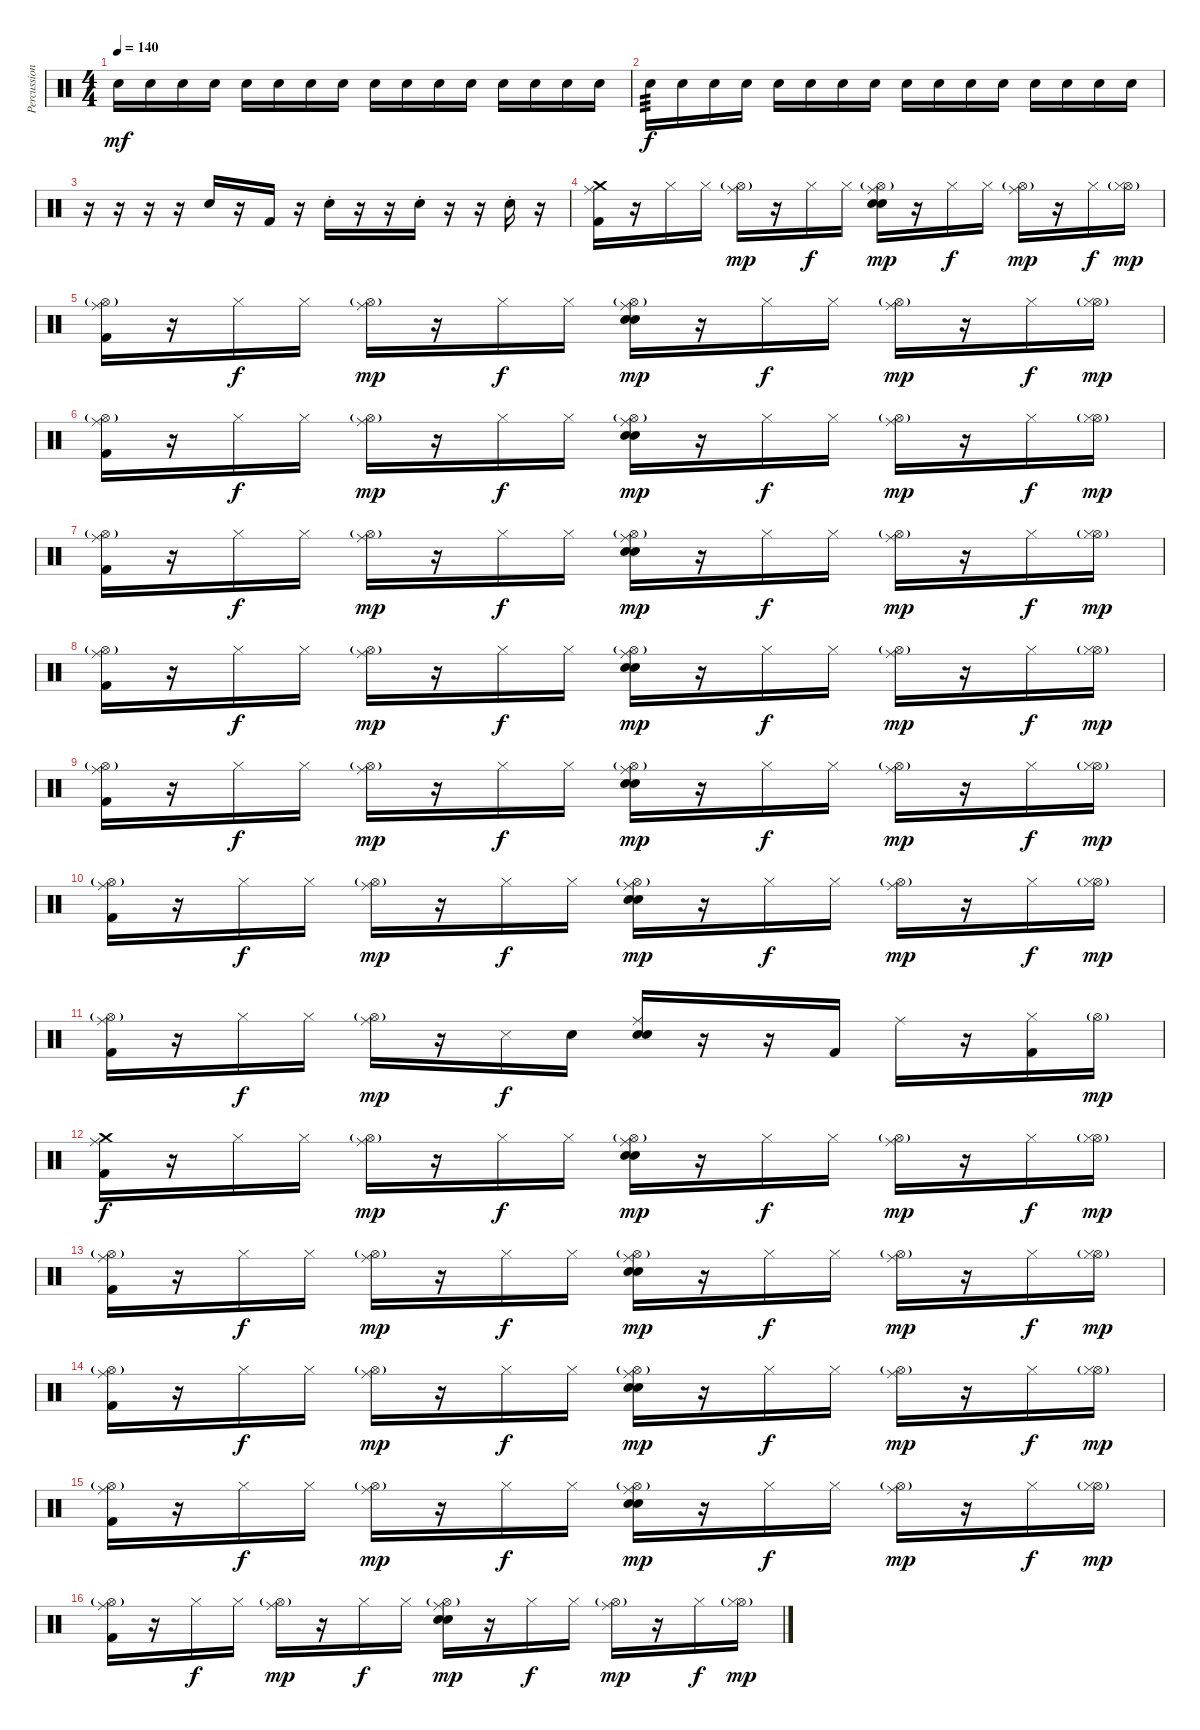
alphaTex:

\track ("Percussion" "Percussion") {instrument percussion}
\staff {score}
\articulation defaults
\ts (4 4)
\tempo 140
\clef neutral
\ks c "Snare (hit) 2".16{dy mf} "Snare (hit) 2".16 "Snare (hit) 2".16 "Snare (hit) 2".16 "Snare (hit) 2".16 "Snare (hit) 2".16 "Snare (hit) 2".16 "Snare (hit) 2".16 "Snare (hit) 2".16 "Snare (hit) 2".16 "Snare (hit) 2".16 "Snare (hit) 2".16 "Snare (hit) 2".16 "Snare (hit) 2".16 "Snare (hit) 2".16 "Snare (hit) 2".16
|
"Snare (hit) 2".16{tp 3 dy f} "Snare (hit) 2".16 "Snare (hit) 2".16 "Snare (hit) 2".16 "Snare (hit) 2".16 "Snare (hit) 2".16 "Snare (hit) 2".16 "Snare (hit) 2".16 "Snare (hit) 2".16 "Snare (hit) 2".16 "Snare (hit) 2".16 "Snare (hit) 2".16 "Snare (hit) 2".16 "Snare (hit) 2".16 "Snare (hit) 2".16 "Snare (hit) 2".16 |
r.16 r.16 r.16 r.16 "Snare (hit) 2".16 r.16 "Kick (hit) 2".16 r.16 "Snare (hit) 2"{st}.16 r.16 r.16 "Snare (hit) 2"{st}.16 r.16 r.16 "Snare (hit) 2"{st}.16 r.16 |
("Crash medium (hit)" "Ride (middle)" "Kick (hit) 2").16 r.16 "Hi-Hat (closed)".16 "Hi-Hat (closed)".16 ("Hi-Hat (open)"{g} "Ride (middle)").16{dy mp} r.16 "Hi-Hat (closed)".16{dy f} "Hi-Hat (closed)".16 ("Hi-Hat (open)"{g} "Ride (middle)" "Hand Clap (hit)" "Snare (hit) 2").16{dy mp} r.16 "Hi-Hat (closed)".16{dy f} "Hi-Hat (closed)".16 ("Hi-Hat (open)"{g} "Ride (middle)").16{dy mp} r.16 "Hi-Hat (closed)".16{dy f} ("Hi-Hat (open)"{g} "Hi-Hat (closed)").16{dy mp} |
("Hi-Hat (open)"{g} "Ride (middle)" "Kick (hit) 2").16 r.16 "Hi-Hat (closed)".16{dy f} "Hi-Hat (closed)".16 ("Hi-Hat (open)"{g} "Ride (middle)").16{dy mp} r.16 "Hi-Hat (closed)".16{dy f} "Hi-Hat (closed)".16 ("Hi-Hat (open)"{g} "Ride (middle)" "Hand Clap (hit)" "Snare (hit) 2").16{dy mp} r.16 "Hi-Hat (closed)".16{dy f} "Hi-Hat (closed)".16 ("Hi-Hat (open)"{g} "Ride (middle)").16{dy mp} r.16 "Hi-Hat (closed)".16{dy f} ("Hi-Hat (open)"{g} "Hi-Hat (closed)").16{dy mp} |
("Hi-Hat (open)"{g} "Ride (middle)" "Kick (hit) 2").16 r.16 "Hi-Hat (closed)".16{dy f} "Hi-Hat (closed)".16 ("Hi-Hat (open)"{g} "Ride (middle)").16{dy mp} r.16 "Hi-Hat (closed)".16{dy f} "Hi-Hat (closed)".16 ("Hi-Hat (open)"{g} "Ride (middle)" "Hand Clap (hit)" "Snare (hit) 2").16{dy mp} r.16 "Hi-Hat (closed)".16{dy f} "Hi-Hat (closed)".16 ("Hi-Hat (open)"{g} "Ride (middle)").16{dy mp} r.16 "Hi-Hat (closed)".16{dy f} ("Hi-Hat (open)"{g} "Hi-Hat (closed)").16{dy mp} |
("Hi-Hat (open)"{g} "Ride (middle)" "Kick (hit) 2").16 r.16 "Hi-Hat (closed)".16{dy f} "Hi-Hat (closed)".16 ("Hi-Hat (open)"{g} "Ride (middle)").16{dy mp} r.16 "Hi-Hat (closed)".16{dy f} "Hi-Hat (closed)".16 ("Hi-Hat (open)"{g} "Ride (middle)" "Hand Clap (hit)" "Snare (hit) 2").16{dy mp} r.16 "Hi-Hat (closed)".16{dy f} "Hi-Hat (closed)".16 ("Hi-Hat (open)"{g} "Ride (middle)").16{dy mp} r.16 "Hi-Hat (closed)".16{dy f} ("Hi-Hat (open)"{g} "Hi-Hat (closed)").16{dy mp} |
("Hi-Hat (open)"{g} "Ride (middle)" "Kick (hit) 2").16 r.16 "Hi-Hat (closed)".16{dy f} "Hi-Hat (closed)".16 ("Hi-Hat (open)"{g} "Ride (middle)").16{dy mp} r.16 "Hi-Hat (closed)".16{dy f} "Hi-Hat (closed)".16 ("Hi-Hat (open)"{g} "Ride (middle)" "Hand Clap (hit)" "Snare (hit) 2").16{dy mp} r.16 "Hi-Hat (closed)".16{dy f} "Hi-Hat (closed)".16 ("Hi-Hat (open)"{g} "Ride (middle)").16{dy mp} r.16 "Hi-Hat (closed)".16{dy f} ("Hi-Hat (open)"{g} "Hi-Hat (closed)").16{dy mp} |
("Hi-Hat (open)"{g} "Ride (middle)" "Kick (hit) 2").16 r.16 "Hi-Hat (closed)".16{dy f} "Hi-Hat (closed)".16 ("Hi-Hat (open)"{g} "Ride (middle)").16{dy mp} r.16 "Hi-Hat (closed)".16{dy f} "Hi-Hat (closed)".16 ("Hi-Hat (open)"{g} "Ride (middle)" "Hand Clap (hit)" "Snare (hit) 2").16{dy mp} r.16 "Hi-Hat (closed)".16{dy f} "Hi-Hat (closed)".16 ("Hi-Hat (open)"{g} "Ride (middle)").16{dy mp} r.16 "Hi-Hat (closed)".16{dy f} ("Hi-Hat (open)"{g} "Hi-Hat (closed)").16{dy mp} |
("Hi-Hat (open)"{g} "Ride (middle)" "Kick (hit) 2").16 r.16 "Hi-Hat (closed)".16{dy f} "Hi-Hat (closed)".16 ("Hi-Hat (open)"{g} "Ride (middle)").16{dy mp} r.16 "Hi-Hat (closed)".16{dy f} "Hi-Hat (closed)".16 ("Hi-Hat (open)"{g} "Ride (middle)" "Hand Clap (hit)" "Snare (hit) 2").16{dy mp} r.16 "Hi-Hat (closed)".16{dy f} "Hi-Hat (closed)".16 ("Hi-Hat (open)"{g} "Ride (middle)").16{dy mp} r.16 "Hi-Hat (closed)".16{dy f} ("Hi-Hat (open)"{g} "Hi-Hat (closed)").16{dy mp} |
("Hi-Hat (open)"{g} "Ride (middle)" "Kick (hit) 2").16 r.16 "Hi-Hat (closed)".16{dy f} "Hi-Hat (closed)".16 ("Hi-Hat (open)"{g} "Ride (middle)").16{dy mp} r.16 "Snare (side stick) 3".16{dy f} "Hand Clap (hit)".16 ("Ride (middle)" "Snare (hit) 2" "Hand Clap (hit)").16 r.16 r.16 "Kick (hit) 2".16 "Ride (middle)".16 r.16 ("Hi-Hat (closed)" "Kick (hit) 2").16 "Hi-Hat (open)"{g}.16{dy mp} |
("Crash medium (hit)" "Ride (middle)" "Kick (hit) 2").16{dy f} r.16 "Hi-Hat (closed)".16 "Hi-Hat (closed)".16 ("Hi-Hat (open)"{g} "Ride (middle)").16{dy mp} r.16 "Hi-Hat (closed)".16{dy f} "Hi-Hat (closed)".16 ("Hi-Hat (open)"{g} "Ride (middle)" "Hand Clap (hit)" "Snare (hit) 2").16{dy mp} r.16 "Hi-Hat (closed)".16{dy f} "Hi-Hat (closed)".16 ("Hi-Hat (open)"{g} "Ride (middle)").16{dy mp} r.16 "Hi-Hat (closed)".16{dy f} ("Hi-Hat (open)"{g} "Hi-Hat (closed)").16{dy mp} |
("Hi-Hat (open)"{g} "Ride (middle)" "Kick (hit) 2").16 r.16 "Hi-Hat (closed)".16{dy f} "Hi-Hat (closed)".16 ("Hi-Hat (open)"{g} "Ride (middle)").16{dy mp} r.16 "Hi-Hat (closed)".16{dy f} "Hi-Hat (closed)".16 ("Hi-Hat (open)"{g} "Ride (middle)" "Hand Clap (hit)" "Snare (hit) 2").16{dy mp} r.16 "Hi-Hat (closed)".16{dy f} "Hi-Hat (closed)".16 ("Hi-Hat (open)"{g} "Ride (middle)").16{dy mp} r.16 "Hi-Hat (closed)".16{dy f} ("Hi-Hat (open)"{g} "Hi-Hat (closed)").16{dy mp} |
("Hi-Hat (open)"{g} "Ride (middle)" "Kick (hit) 2").16 r.16 "Hi-Hat (closed)".16{dy f} "Hi-Hat (closed)".16 ("Hi-Hat (open)"{g} "Ride (middle)").16{dy mp} r.16 "Hi-Hat (closed)".16{dy f} "Hi-Hat (closed)".16 ("Hi-Hat (open)"{g} "Ride (middle)" "Hand Clap (hit)" "Snare (hit) 2").16{dy mp} r.16 "Hi-Hat (closed)".16{dy f} "Hi-Hat (closed)".16 ("Hi-Hat (open)"{g} "Ride (middle)").16{dy mp} r.16 "Hi-Hat (closed)".16{dy f} ("Hi-Hat (open)"{g} "Hi-Hat (closed)").16{dy mp} |
("Hi-Hat (open)"{g} "Ride (middle)" "Kick (hit) 2").16 r.16 "Hi-Hat (closed)".16{dy f} "Hi-Hat (closed)".16 ("Hi-Hat (open)"{g} "Ride (middle)").16{dy mp} r.16 "Hi-Hat (closed)".16{dy f} "Hi-Hat (closed)".16 ("Hi-Hat (open)"{g} "Ride (middle)" "Hand Clap (hit)" "Snare (hit) 2").16{dy mp} r.16 "Hi-Hat (closed)".16{dy f} "Hi-Hat (closed)".16 ("Hi-Hat (open)"{g} "Ride (middle)").16{dy mp} r.16 "Hi-Hat (closed)".16{dy f} ("Hi-Hat (open)"{g} "Hi-Hat (closed)").16{dy mp} |
("Hi-Hat (open)"{g} "Ride (middle)" "Kick (hit) 2").16 r.16 "Hi-Hat (closed)".16{dy f} "Hi-Hat (closed)".16 ("Hi-Hat (open)"{g} "Ride (middle)").16{dy mp} r.16 "Hi-Hat (closed)".16{dy f} "Hi-Hat (closed)".16 ("Hi-Hat (open)"{g} "Ride (middle)" "Hand Clap (hit)" "Snare (hit) 2").16{dy mp} r.16 "Hi-Hat (closed)".16{dy f} "Hi-Hat (closed)".16 ("Hi-Hat (open)"{g} "Ride (middle)").16{dy mp} r.16 "Hi-Hat (closed)".16{dy f} ("Hi-Hat (open)"{g} "Hi-Hat (closed)").16{dy mp}
